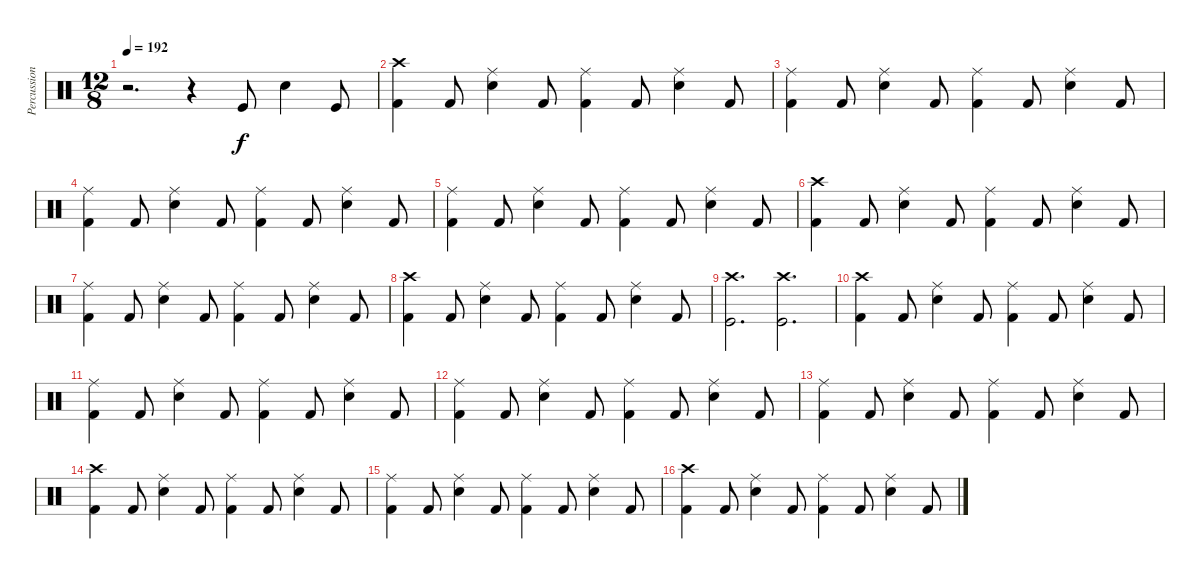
\track ("Percussion" "Percussion") {instrument percussion}
\staff {score}
\articulation defaults
\ts (12 8)
\tempo 192
\clef neutral
\ks c
r.2{d dy f} r.4 "Kick (hit)".8 "Snare (hit) 2".4 "Kick (hit)".8 |
("Kick (hit) 2" "Crash high (hit)").4 "Kick (hit) 2".8 ("Snare (hit) 2" "Ride (middle)").4 "Kick (hit) 2".8 ("Kick (hit) 2" "Ride (middle)").4 "Kick (hit) 2".8 ("Snare (hit) 2" "Ride (middle)").4 "Kick (hit) 2".8 |
("Kick (hit) 2" "Ride (middle)").4 "Kick (hit) 2".8 ("Snare (hit) 2" "Ride (middle)").4 "Kick (hit) 2".8 ("Kick (hit) 2" "Ride (middle)").4 "Kick (hit) 2".8 ("Snare (hit) 2" "Ride (middle)").4 "Kick (hit) 2".8 |
("Kick (hit) 2" "Ride (middle)").4 "Kick (hit) 2".8 ("Snare (hit) 2" "Ride (middle)").4 "Kick (hit) 2".8 ("Kick (hit) 2" "Ride (middle)").4 "Kick (hit) 2".8 ("Snare (hit) 2" "Ride (middle)").4 "Kick (hit) 2".8 |
("Kick (hit) 2" "Ride (middle)").4 "Kick (hit) 2".8 ("Snare (hit) 2" "Ride (middle)").4 "Kick (hit) 2".8 ("Kick (hit) 2" "Ride (middle)").4 "Kick (hit) 2".8 ("Snare (hit) 2" "Ride (middle)").4 "Kick (hit) 2".8 |
("Kick (hit) 2" "Crash high (hit)").4 "Kick (hit) 2".8 ("Snare (hit) 2" "Ride (middle)").4 "Kick (hit) 2".8 ("Kick (hit) 2" "Ride (middle)").4 "Kick (hit) 2".8 ("Snare (hit) 2" "Ride (middle)").4 "Kick (hit) 2".8 |
("Kick (hit) 2" "Ride (middle)").4 "Kick (hit) 2".8 ("Snare (hit) 2" "Ride (middle)").4 "Kick (hit) 2".8 ("Kick (hit) 2" "Ride (middle)").4 "Kick (hit) 2".8 ("Snare (hit) 2" "Ride (middle)").4 "Kick (hit) 2".8 |
("Kick (hit) 2" "Crash high (hit)").4 "Kick (hit) 2".8 ("Snare (hit) 2" "Ride (middle)").4 "Kick (hit) 2".8 ("Kick (hit) 2" "Ride (middle)").4 "Kick (hit) 2".8 ("Snare (hit) 2" "Ride (middle)").4 "Kick (hit) 2".8 |
("Kick (hit)" "Crash high (hit)").2{d} ("Kick (hit)" "Crash high (hit)").2{d} |
("Kick (hit) 2" "Crash high (hit)").4 "Kick (hit) 2".8 ("Snare (hit) 2" "Ride (middle)").4 "Kick (hit) 2".8 ("Kick (hit) 2" "Ride (middle)").4 "Kick (hit) 2".8 ("Snare (hit) 2" "Ride (middle)").4 "Kick (hit) 2".8 |
("Kick (hit) 2" "Ride (middle)").4 "Kick (hit) 2".8 ("Snare (hit) 2" "Ride (middle)").4 "Kick (hit) 2".8 ("Kick (hit) 2" "Ride (middle)").4 "Kick (hit) 2".8 ("Snare (hit) 2" "Ride (middle)").4 "Kick (hit) 2".8 |
("Kick (hit) 2" "Ride (middle)").4 "Kick (hit) 2".8 ("Snare (hit) 2" "Ride (middle)").4 "Kick (hit) 2".8 ("Kick (hit) 2" "Ride (middle)").4 "Kick (hit) 2".8 ("Snare (hit) 2" "Ride (middle)").4 "Kick (hit) 2".8 |
("Kick (hit) 2" "Ride (middle)").4 "Kick (hit) 2".8 ("Snare (hit) 2" "Ride (middle)").4 "Kick (hit) 2".8 ("Kick (hit) 2" "Ride (middle)").4 "Kick (hit) 2".8 ("Snare (hit) 2" "Ride (middle)").4 "Kick (hit) 2".8 |
("Kick (hit) 2" "Crash high (hit)").4 "Kick (hit) 2".8 ("Snare (hit) 2" "Ride (middle)").4 "Kick (hit) 2".8 ("Kick (hit) 2" "Ride (middle)").4 "Kick (hit) 2".8 ("Snare (hit) 2" "Ride (middle)").4 "Kick (hit) 2".8 |
("Kick (hit) 2" "Ride (middle)").4 "Kick (hit) 2".8 ("Snare (hit) 2" "Ride (middle)").4 "Kick (hit) 2".8 ("Kick (hit) 2" "Ride (middle)").4 "Kick (hit) 2".8 ("Snare (hit) 2" "Ride (middle)").4 "Kick (hit) 2".8 |
("Kick (hit) 2" "Crash high (hit)").4 "Kick (hit) 2".8 ("Snare (hit) 2" "Ride (middle)").4 "Kick (hit) 2".8 ("Kick (hit) 2" "Ride (middle)").4 "Kick (hit) 2".8 ("Snare (hit) 2" "Ride (middle)").4 "Kick (hit) 2".8
